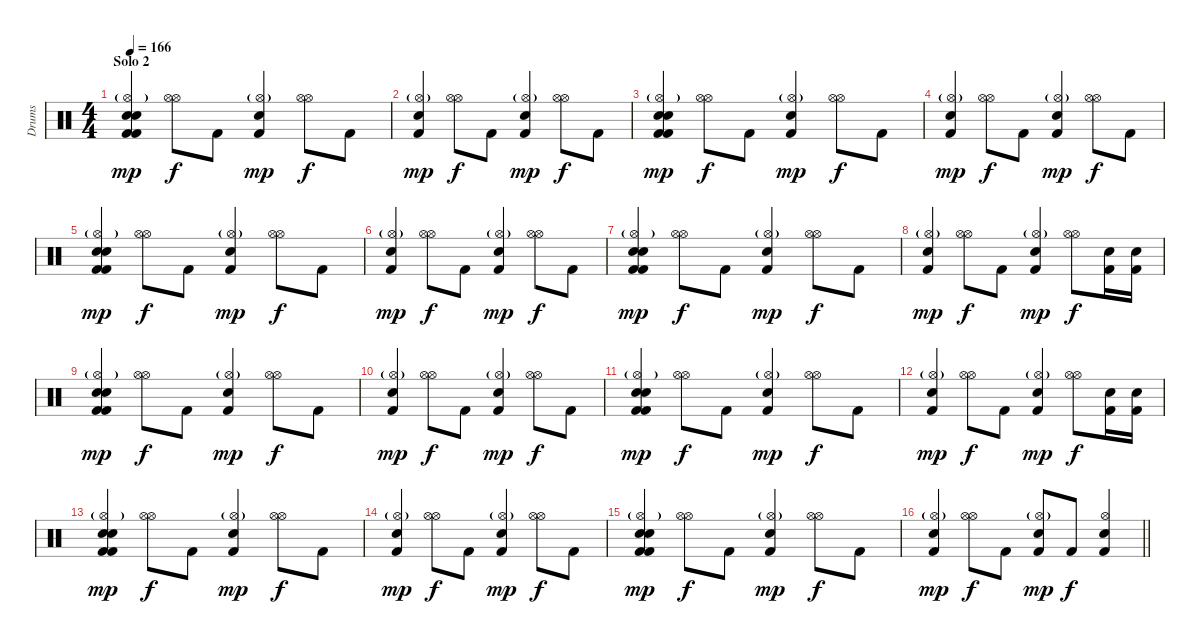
\track ("Drums" "Drums") {instrument percussion}
\staff {score}
\articulation defaults
\ts (4 4)
\section ("" "Solo 2")
\tempo 166
\clef neutral
\ks c
("Kick (hit) 2" "Electric Snare (hit)" "Hi-Hat (open)"{g} "Kick (hit) 2" "Snare (hit) 2").4{dy mp} ("Hi-Hat (open)" "Hi-Hat (open)").8{dy f} "Kick (hit) 2".8 ("Hi-Hat (open)"{g} "Kick (hit) 2" "Snare (hit) 2").4{dy mp} ("Hi-Hat (open)" "Hi-Hat (open)").8{dy f} "Kick (hit) 2".8 |
("Hi-Hat (open)"{g} "Kick (hit) 2" "Snare (hit) 2").4{dy mp} ("Hi-Hat (open)" "Hi-Hat (open)").8{dy f} "Kick (hit) 2".8 ("Hi-Hat (open)"{g} "Kick (hit) 2" "Snare (hit) 2").4{dy mp} ("Hi-Hat (open)" "Hi-Hat (open)").8{dy f} "Kick (hit) 2".8 |
("Kick (hit) 2" "Electric Snare (hit)" "Hi-Hat (open)"{g} "Kick (hit) 2" "Snare (hit) 2").4{dy mp} ("Hi-Hat (open)" "Hi-Hat (open)").8{dy f} "Kick (hit) 2".8 ("Hi-Hat (open)"{g} "Kick (hit) 2" "Snare (hit) 2").4{dy mp} ("Hi-Hat (open)" "Hi-Hat (open)").8{dy f} "Kick (hit) 2".8 |
("Hi-Hat (open)"{g} "Kick (hit) 2" "Snare (hit) 2").4{dy mp} ("Hi-Hat (open)" "Hi-Hat (open)").8{dy f} "Kick (hit) 2".8 ("Hi-Hat (open)"{g} "Kick (hit) 2" "Snare (hit) 2").4{dy mp} ("Hi-Hat (open)" "Hi-Hat (open)").8{dy f} "Kick (hit) 2".8 |
("Kick (hit) 2" "Electric Snare (hit)" "Hi-Hat (open)"{g} "Kick (hit) 2" "Snare (hit) 2").4{dy mp} ("Hi-Hat (open)" "Hi-Hat (open)").8{dy f} "Kick (hit) 2".8 ("Hi-Hat (open)"{g} "Kick (hit) 2" "Snare (hit) 2").4{dy mp} ("Hi-Hat (open)" "Hi-Hat (open)").8{dy f} "Kick (hit) 2".8 |
("Hi-Hat (open)"{g} "Kick (hit) 2" "Snare (hit) 2").4{dy mp} ("Hi-Hat (open)" "Hi-Hat (open)").8{dy f} "Kick (hit) 2".8 ("Hi-Hat (open)"{g} "Kick (hit) 2" "Snare (hit) 2").4{dy mp} ("Hi-Hat (open)" "Hi-Hat (open)").8{dy f} "Kick (hit) 2".8 |
("Kick (hit) 2" "Electric Snare (hit)" "Hi-Hat (open)"{g} "Kick (hit) 2" "Snare (hit) 2").4{dy mp} ("Hi-Hat (open)" "Hi-Hat (open)").8{dy f} "Kick (hit) 2".8 ("Hi-Hat (open)"{g} "Kick (hit) 2" "Snare (hit) 2").4{dy mp} ("Hi-Hat (open)" "Hi-Hat (open)").8{dy f} "Kick (hit) 2".8 |
("Hi-Hat (open)"{g} "Kick (hit) 2" "Snare (hit) 2").4{dy mp} ("Hi-Hat (open)" "Hi-Hat (open)").8{dy f} "Kick (hit) 2".8 ("Hi-Hat (open)"{g} "Kick (hit) 2" "Snare (hit) 2").4{dy mp} ("Hi-Hat (open)" "Hi-Hat (open)").8{dy f} ("Snare (hit) 2" "Kick (hit) 2").16 ("Snare (hit) 2" "Kick (hit) 2").16 |
("Kick (hit) 2" "Electric Snare (hit)" "Hi-Hat (open)"{g} "Kick (hit) 2" "Snare (hit) 2").4{dy mp} ("Hi-Hat (open)" "Hi-Hat (open)").8{dy f} "Kick (hit) 2".8 ("Hi-Hat (open)"{g} "Kick (hit) 2" "Snare (hit) 2").4{dy mp} ("Hi-Hat (open)" "Hi-Hat (open)").8{dy f} "Kick (hit) 2".8 |
("Hi-Hat (open)"{g} "Kick (hit) 2" "Snare (hit) 2").4{dy mp} ("Hi-Hat (open)" "Hi-Hat (open)").8{dy f} "Kick (hit) 2".8 ("Hi-Hat (open)"{g} "Kick (hit) 2" "Snare (hit) 2").4{dy mp} ("Hi-Hat (open)" "Hi-Hat (open)").8{dy f} "Kick (hit) 2".8 |
("Kick (hit) 2" "Electric Snare (hit)" "Hi-Hat (open)"{g} "Kick (hit) 2" "Snare (hit) 2").4{dy mp} ("Hi-Hat (open)" "Hi-Hat (open)").8{dy f} "Kick (hit) 2".8 ("Hi-Hat (open)"{g} "Kick (hit) 2" "Snare (hit) 2").4{dy mp} ("Hi-Hat (open)" "Hi-Hat (open)").8{dy f} "Kick (hit) 2".8 |
("Hi-Hat (open)"{g} "Kick (hit) 2" "Snare (hit) 2").4{dy mp} ("Hi-Hat (open)" "Hi-Hat (open)").8{dy f} "Kick (hit) 2".8 ("Hi-Hat (open)"{g} "Kick (hit) 2" "Snare (hit) 2").4{dy mp} ("Hi-Hat (open)" "Hi-Hat (open)").8{dy f} ("Snare (hit) 2" "Kick (hit) 2").16 ("Snare (hit) 2" "Kick (hit) 2").16 |
("Kick (hit) 2" "Electric Snare (hit)" "Hi-Hat (open)"{g} "Kick (hit) 2" "Snare (hit) 2").4{dy mp} ("Hi-Hat (open)" "Hi-Hat (open)").8{dy f} "Kick (hit) 2".8 ("Hi-Hat (open)"{g} "Kick (hit) 2" "Snare (hit) 2").4{dy mp} ("Hi-Hat (open)" "Hi-Hat (open)").8{dy f} "Kick (hit) 2".8 |
("Hi-Hat (open)"{g} "Kick (hit) 2" "Snare (hit) 2").4{dy mp} ("Hi-Hat (open)" "Hi-Hat (open)").8{dy f} "Kick (hit) 2".8 ("Hi-Hat (open)"{g} "Kick (hit) 2" "Snare (hit) 2").4{dy mp} ("Hi-Hat (open)" "Hi-Hat (open)").8{dy f} "Kick (hit) 2".8 |
("Kick (hit) 2" "Electric Snare (hit)" "Hi-Hat (open)"{g} "Kick (hit) 2" "Snare (hit) 2").4{dy mp} ("Hi-Hat (open)" "Hi-Hat (open)").8{dy f} "Kick (hit) 2".8 ("Hi-Hat (open)"{g} "Kick (hit) 2" "Snare (hit) 2").4{dy mp} ("Hi-Hat (open)" "Hi-Hat (open)").8{dy f} "Kick (hit) 2".8 |
\barLineRight lightlight
("Hi-Hat (open)"{g} "Kick (hit) 2" "Snare (hit) 2").4{dy mp} ("Hi-Hat (open)" "Hi-Hat (open)").8{dy f} "Kick (hit) 2".8 ("Hi-Hat (open)"{g} "Kick (hit) 2" "Snare (hit) 2").8{dy mp} "Kick (hit) 2".8{dy f} ("Hi-Hat (open)" "Kick (hit) 2" "Snare (hit) 2").4
